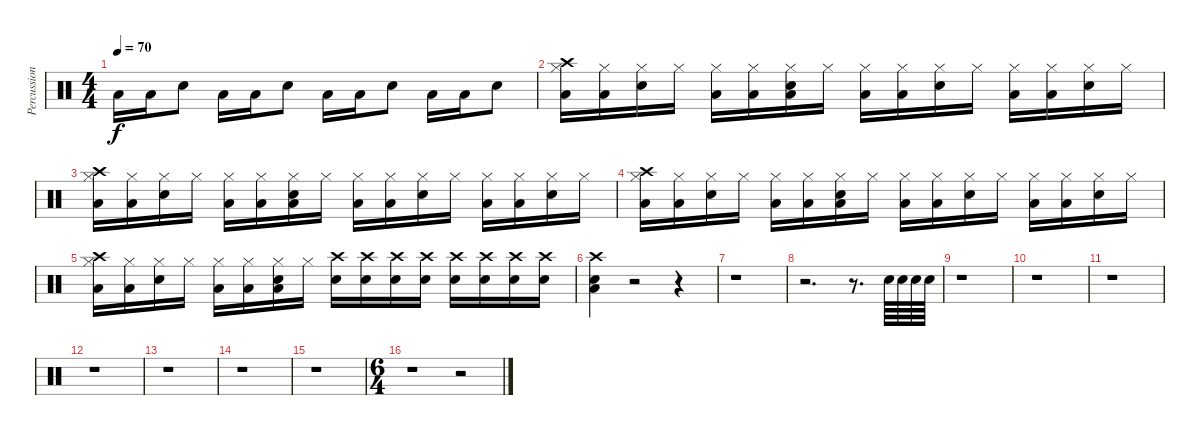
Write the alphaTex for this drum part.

\track ("Percussions" "Percussion") {instrument percussion}
\staff {score}
\articulation defaults
\ts (4 4)
\tempo 70
\clef neutral
\ks c "Low Floor Tom (hit)".16{dy f} "Low Floor Tom (hit)".16 "Snare (hit) 2".8 "Low Floor Tom (hit)".16 "Low Floor Tom (hit)".16 "Snare (hit) 2".8 "Low Floor Tom (hit)".16 "Low Floor Tom (hit)".16 "Snare (hit) 2".8 "Low Floor Tom (hit)".16 "Low Floor Tom (hit)".16 "Snare (hit) 2".8
|
("Low Floor Tom (hit)" "Crash high (hit)" "Hi-Hat (closed)").16 ("Low Floor Tom (hit)" "Hi-Hat (closed)").16 ("Snare (hit) 2" "Hi-Hat (closed)").16 "Hi-Hat (closed)".16 ("Low Floor Tom (hit)" "Hi-Hat (closed)").16 ("Low Floor Tom (hit)" "Hi-Hat (closed)").16 ("Low Floor Tom (hit)" "Snare (hit) 2" "Hi-Hat (closed)").16 "Hi-Hat (closed)".16 ("Low Floor Tom (hit)" "Hi-Hat (closed)").16 ("Low Floor Tom (hit)" "Hi-Hat (closed)").16 ("Snare (hit) 2" "Hi-Hat (closed)").16 "Hi-Hat (closed)".16 ("Low Floor Tom (hit)" "Hi-Hat (closed)").16 ("Low Floor Tom (hit)" "Hi-Hat (closed)").16 ("Snare (hit) 2" "Hi-Hat (closed)").16 "Hi-Hat (closed)".16 |
("Low Floor Tom (hit)" "Crash high (hit)" "Hi-Hat (closed)").16 ("Low Floor Tom (hit)" "Hi-Hat (closed)").16 ("Snare (hit) 2" "Hi-Hat (closed)").16 "Hi-Hat (closed)".16 ("Low Floor Tom (hit)" "Hi-Hat (closed)").16 ("Low Floor Tom (hit)" "Hi-Hat (closed)").16 ("Low Floor Tom (hit)" "Snare (hit) 2" "Hi-Hat (closed)").16 "Hi-Hat (closed)".16 ("Low Floor Tom (hit)" "Hi-Hat (closed)").16 ("Low Floor Tom (hit)" "Hi-Hat (closed)").16 ("Snare (hit) 2" "Hi-Hat (closed)").16 "Hi-Hat (closed)".16 ("Low Floor Tom (hit)" "Hi-Hat (closed)").16 ("Low Floor Tom (hit)" "Hi-Hat (closed)").16 ("Snare (hit) 2" "Hi-Hat (closed)").16 "Hi-Hat (closed)".16 |
("Low Floor Tom (hit)" "Crash high (hit)" "Hi-Hat (closed)").16 ("Low Floor Tom (hit)" "Hi-Hat (closed)").16 ("Snare (hit) 2" "Hi-Hat (closed)").16 "Hi-Hat (closed)".16 ("Low Floor Tom (hit)" "Hi-Hat (closed)").16 ("Low Floor Tom (hit)" "Hi-Hat (closed)").16 ("Low Floor Tom (hit)" "Snare (hit) 2" "Hi-Hat (closed)").16 "Hi-Hat (closed)".16 ("Low Floor Tom (hit)" "Hi-Hat (closed)").16 ("Low Floor Tom (hit)" "Hi-Hat (closed)").16 ("Snare (hit) 2" "Hi-Hat (closed)").16 "Hi-Hat (closed)".16 ("Low Floor Tom (hit)" "Hi-Hat (closed)").16 ("Low Floor Tom (hit)" "Hi-Hat (closed)").16 ("Snare (hit) 2" "Hi-Hat (closed)").16 "Hi-Hat (closed)".16 |
("Low Floor Tom (hit)" "Crash high (hit)" "Hi-Hat (closed)").16 ("Low Floor Tom (hit)" "Hi-Hat (closed)").16 ("Snare (hit) 2" "Hi-Hat (closed)").16 "Hi-Hat (closed)".16 ("Low Floor Tom (hit)" "Hi-Hat (closed)").16 ("Low Floor Tom (hit)" "Hi-Hat (closed)").16 ("Low Floor Tom (hit)" "Snare (hit) 2" "Hi-Hat (closed)").16 "Hi-Hat (closed)".16 ("Snare (hit) 2" "Crash high (hit)").16 ("Snare (hit) 2" "Crash high (hit)").16 ("Snare (hit) 2" "Crash high (hit)").16 ("Snare (hit) 2" "Crash high (hit)").16 ("Snare (hit) 2" "Crash high (hit)").16 ("Snare (hit) 2" "Crash high (hit)").16 ("Snare (hit) 2" "Crash high (hit)").16 ("Snare (hit) 2" "Crash high (hit)").16 |
("Low Floor Tom (hit)" "Snare (hit) 2" "Crash high (hit)").4 r.2 r.4 |
r.1 |
r.2{d} r.8{d} "Snare (hit) 2".64 "Snare (hit) 2".64 "Snare (hit) 2".64 "Snare (hit) 2".64 |
r.1 |
r.1 |
r.1 |
r.1 |
r.1 |
r.1 |
r.1 |
\ts (6 4)
r.1 r.2
